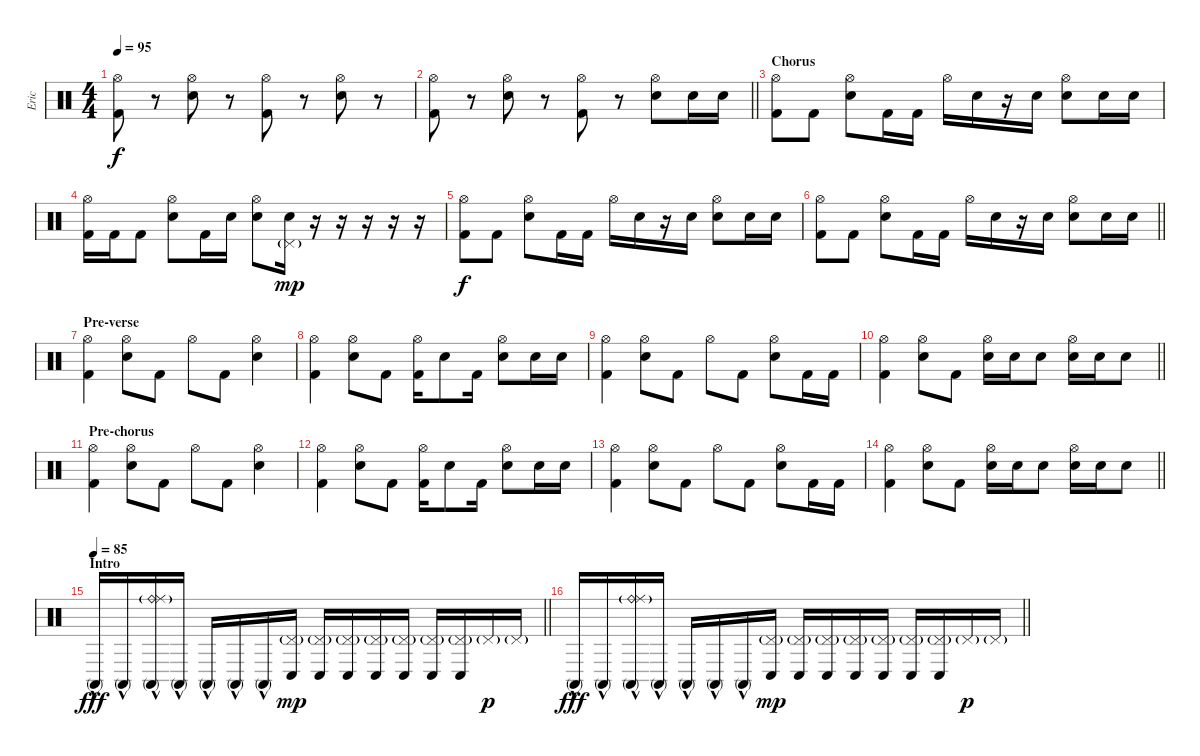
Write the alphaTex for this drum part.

\track ("Eric" "Eric") {instrument percussion}
\staff {score}
\articulation defaults
\ts (4 4)
\tempo 95
\clef neutral
\ks c
("Hi-Hat (open)" "Kick (hit) 2").8{dy f} r.8 ("Hi-Hat (open)" "Electric Snare (hit)").8 r.8 ("Hi-Hat (open)" "Kick (hit) 2").8 r.8 ("Hi-Hat (open)" "Electric Snare (hit)").8 r.8 |
\barLineRight lightlight
("Hi-Hat (open)" "Kick (hit) 2").8 r.8 ("Hi-Hat (open)" "Electric Snare (hit)").8 r.8 ("Hi-Hat (open)" "Kick (hit) 2").8 r.8 ("Hi-Hat (open)" "Electric Snare (hit)").8 "Electric Snare (hit)".16 "Electric Snare (hit)".16 |
\section ("" "Chorus")
("Hi-Hat (open)" "Kick (hit) 2").8 "Kick (hit) 2".8 ("Hi-Hat (open)" "Electric Snare (hit)").8 "Kick (hit) 2".16 "Kick (hit) 2".16 "Hi-Hat (open)".16 "Electric Snare (hit)".16 r.16 "Electric Snare (hit)".16 ("Hi-Hat (open)" "Electric Snare (hit)").8 "Electric Snare (hit)".16 "Electric Snare (hit)".16 |
("Hi-Hat (open)" "Kick (hit) 2").16 "Kick (hit) 2".16 "Kick (hit) 2".8 ("Hi-Hat (open)" "Electric Snare (hit)").8 "Kick (hit) 2".16 "Electric Snare (hit)".16 ("Hi-Hat (open)" "Electric Snare (hit)").8 ("Pedal Hi-Hat (hit)"{g} "Electric Snare (hit)").16{dy mp} r.16 r.16 r.16 r.16 r.16 |
("Hi-Hat (open)" "Kick (hit) 2").8{dy f} "Kick (hit) 2".8 ("Hi-Hat (open)" "Electric Snare (hit)").8 "Kick (hit) 2".16 "Kick (hit) 2".16 "Hi-Hat (open)".16 "Electric Snare (hit)".16 r.16 "Electric Snare (hit)".16 ("Hi-Hat (open)" "Electric Snare (hit)").8 "Electric Snare (hit)".16 "Electric Snare (hit)".16 |
\barLineRight lightlight
("Hi-Hat (open)" "Kick (hit) 2").8 "Kick (hit) 2".8 ("Hi-Hat (open)" "Electric Snare (hit)").8 "Kick (hit) 2".16 "Kick (hit) 2".16 "Hi-Hat (open)".16 "Electric Snare (hit)".16 r.16 "Electric Snare (hit)".16 ("Hi-Hat (open)" "Electric Snare (hit)").8 "Electric Snare (hit)".16 "Electric Snare (hit)".16 |
\section ("" "Pre-verse")
("Hi-Hat (open)" "Kick (hit) 2").4 ("Hi-Hat (open)" "Electric Snare (hit)").8 "Kick (hit) 2".8 "Hi-Hat (open)".8 "Kick (hit) 2".8 ("Hi-Hat (open)" "Electric Snare (hit)").4 |
("Hi-Hat (open)" "Kick (hit) 2").4 ("Hi-Hat (open)" "Electric Snare (hit)").8 "Kick (hit) 2".8 ("Hi-Hat (open)" "Kick (hit) 2").16 "Electric Snare (hit)".8 "Kick (hit) 2".16 ("Hi-Hat (open)" "Electric Snare (hit)").8 "Electric Snare (hit)".16 "Electric Snare (hit)".16 |
("Hi-Hat (open)" "Kick (hit) 2").4 ("Hi-Hat (open)" "Electric Snare (hit)").8 "Kick (hit) 2".8 "Hi-Hat (open)".8 "Kick (hit) 2".8 ("Hi-Hat (open)" "Electric Snare (hit)").8 "Kick (hit) 2".16 "Kick (hit) 2".16 |
\barLineRight lightlight
("Hi-Hat (open)" "Kick (hit) 2").4 ("Hi-Hat (open)" "Electric Snare (hit)").8 "Kick (hit) 2".8 ("Hi-Hat (open)" "Electric Snare (hit)").16 "Electric Snare (hit)".16 "Electric Snare (hit)".8 ("Hi-Hat (open)" "Electric Snare (hit)").16 "Electric Snare (hit)".16 "Electric Snare (hit)".8 |
\section ("" "Pre-chorus")
("Hi-Hat (open)" "Kick (hit) 2").4 ("Hi-Hat (open)" "Electric Snare (hit)").8 "Kick (hit) 2".8 "Hi-Hat (open)".8 "Kick (hit) 2".8 ("Hi-Hat (open)" "Electric Snare (hit)").4 |
("Hi-Hat (open)" "Kick (hit) 2").4 ("Hi-Hat (open)" "Electric Snare (hit)").8 "Kick (hit) 2".8 ("Hi-Hat (open)" "Kick (hit) 2").16 "Electric Snare (hit)".8 "Kick (hit) 2".16 ("Hi-Hat (open)" "Electric Snare (hit)").8 "Electric Snare (hit)".16 "Electric Snare (hit)".16 |
("Hi-Hat (open)" "Kick (hit) 2").4 ("Hi-Hat (open)" "Electric Snare (hit)").8 "Kick (hit) 2".8 "Hi-Hat (open)".8 "Kick (hit) 2".8 ("Hi-Hat (open)" "Electric Snare (hit)").8 "Kick (hit) 2".16 "Kick (hit) 2".16 |
\barLineRight lightlight
("Hi-Hat (open)" "Kick (hit) 2").4 ("Hi-Hat (open)" "Electric Snare (hit)").8 "Kick (hit) 2".8 ("Hi-Hat (open)" "Electric Snare (hit)").16 "Electric Snare (hit)".16 "Electric Snare (hit)".8 ("Hi-Hat (open)" "Electric Snare (hit)").16 "Electric Snare (hit)".16 "Electric Snare (hit)".8 |
\section ("" "Intro")
\tempo 85
\barLineRight lightlight "Conga high (mute)"{hac}.16{dy fff} "Conga high (mute)"{hac}.16
("Ride (bell)"{g} "Ride (middle)"{g} "Conga high (mute)"{hac}).16 "Conga high (mute)"{hac}.16 "Conga high (mute)"{hac}.16 "Conga high (mute)"{hac}.16 "Conga high (mute)"{hac}.16 ("Pedal Hi-Hat (hit)"{g} "Conga low (hit)").16{dy mp} ("Pedal Hi-Hat (hit)"{g} "Conga low (hit)").16 ("Pedal Hi-Hat (hit)"{g} "Conga low (hit)").16 ("Pedal Hi-Hat (hit)"{g} "Conga low (hit)").16 ("Pedal Hi-Hat (hit)"{g} "Conga low (hit)").16 ("Pedal Hi-Hat (hit)"{g} "Conga low (hit)").16 ("Pedal Hi-Hat (hit)"{g} "Conga low (hit)").16 "Pedal Hi-Hat (hit)"{g}.16{dy p} "Pedal Hi-Hat (hit)"{g}.16 |
\barLineRight lightlight "Conga high (mute)"{hac}.16{dy fff} "Conga high (mute)"{hac}.16
("Ride (bell)"{g} "Ride (middle)"{g} "Conga high (mute)"{hac}).16 "Conga high (mute)"{hac}.16 "Conga high (mute)"{hac}.16 "Conga high (mute)"{hac}.16 "Conga high (mute)"{hac}.16 ("Pedal Hi-Hat (hit)"{g} "Conga low (hit)").16{dy mp} ("Pedal Hi-Hat (hit)"{g} "Conga low (hit)").16 ("Pedal Hi-Hat (hit)"{g} "Conga low (hit)").16 ("Pedal Hi-Hat (hit)"{g} "Conga low (hit)").16 ("Pedal Hi-Hat (hit)"{g} "Conga low (hit)").16 ("Pedal Hi-Hat (hit)"{g} "Conga low (hit)").16 ("Pedal Hi-Hat (hit)"{g} "Conga low (hit)").16 "Pedal Hi-Hat (hit)"{g}.16{dy p} "Pedal Hi-Hat (hit)"{g}.16
